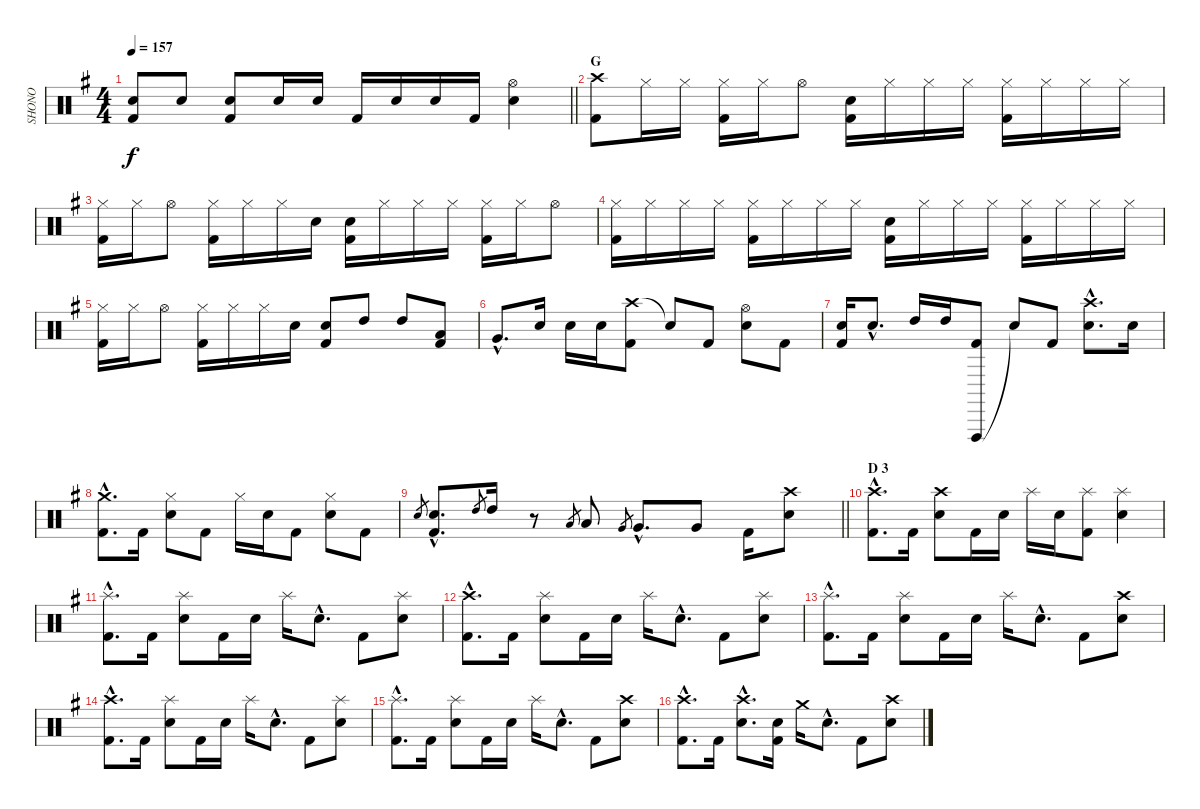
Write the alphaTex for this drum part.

\track ("SHONO" "SHONO") {instrument percussion}
\staff {score}
\articulation defaults
\ts (4 4)
\tempo 157
\clef neutral
\barLineRight lightlight
\ks g
("Snare (hit) 2" "Kick (hit) 2").8{dy f} "Snare (hit) 2".8 ("Snare (hit) 2" "Kick (hit) 2").8 "Snare (hit) 2".16 "Snare (hit) 2".16 "Kick (hit) 2".16 "Snare (hit) 2".16 "Snare (hit) 2".16 "Kick (hit) 2".16 ("Hi-Hat (open)" "Snare (hit) 2").4 |
\section ("" "G")
("Crash high (hit)" "Kick (hit) 2").8 "Hi-Hat (closed)".16 "Hi-Hat (closed)".16 ("Hi-Hat (closed)" "Kick (hit) 2").16 "Hi-Hat (closed)".16 "Hi-Hat (open)".8 ("Snare (hit) 2" "Kick (hit) 2").16 "Hi-Hat (closed)".16 "Hi-Hat (closed)".16 "Hi-Hat (closed)".16 ("Hi-Hat (closed)" "Kick (hit) 2").16 "Hi-Hat (closed)".16 "Hi-Hat (closed)".16 "Hi-Hat (closed)".16 |
("Hi-Hat (closed)" "Kick (hit) 2").16 "Hi-Hat (closed)".16 "Hi-Hat (open)".8 ("Hi-Hat (closed)" "Kick (hit) 2").16 "Hi-Hat (closed)".16 "Hi-Hat (closed)".16 "Snare (hit) 2".16 ("Kick (hit) 2" "Snare (hit) 2").16 "Hi-Hat (closed)".16 "Hi-Hat (closed)".16 "Hi-Hat (closed)".16 ("Hi-Hat (closed)" "Kick (hit) 2").16 "Hi-Hat (closed)".16 "Hi-Hat (open)".8 |
("Hi-Hat (closed)" "Kick (hit) 2").16 "Hi-Hat (closed)".16 "Hi-Hat (closed)".16 "Hi-Hat (closed)".16 ("Hi-Hat (closed)" "Kick (hit) 2").16 "Hi-Hat (closed)".16 "Hi-Hat (closed)".16 "Hi-Hat (closed)".16 ("Kick (hit) 2" "Snare (hit) 2").16 "Hi-Hat (closed)".16 "Hi-Hat (closed)".16 "Hi-Hat (closed)".16 ("Hi-Hat (closed)" "Kick (hit) 2").16 "Hi-Hat (closed)".16 "Hi-Hat (closed)".16 "Hi-Hat (closed)".16 |
("Hi-Hat (closed)" "Kick (hit) 2").16 "Hi-Hat (closed)".16 "Hi-Hat (open)".8 ("Hi-Hat (closed)" "Kick (hit) 2").16 "Hi-Hat (closed)".16 "Hi-Hat (closed)".16 "Snare (hit) 2".16 ("Kick (hit) 2" "Snare (hit) 2").8 "High Tom (hit)".8 "High Tom (hit)".8 ("Low Tom (hit)" "Kick (hit) 2").8 |
"Very Low Tom (hit)"{hac}.8{d} "Snare (hit) 2".16 "Snare (hit) 2".16 "Snare (hit) 2".16 ("Crash high (hit)" "Kick (hit) 2").8 "Snare (hit)"{t}.8 "Kick (hit) 2".8 ("Hi-Hat (open)" "Snare (hit) 2").8 "Kick (hit) 2".8 |
("Snare (hit) 2" "Kick (hit) 2").16 "Snare (hit) 2"{hac}.8{d} "High Tom (hit)".16 "High Tom (hit)".16 ("Vibraslap (hit)" "Kick (hit) 2").8 "Snare (hit)"{t}.8 "Kick (hit) 2".8 ("Crash high (hit)"{hac} "Snare (hit) 2"{hac}).8{d} "Snare (hit) 2".16 |
("Crash medium (hit)"{hac} "Kick (hit) 2"{hac}).8{d} "Kick (hit) 2".16 ("Hi-Hat (closed)" "Snare (hit) 2").8 "Kick (hit) 2".8 "Hi-Hat (closed)".16 "Snare (hit) 2".16 "Kick (hit) 2".8 ("Hi-Hat (closed)" "Snare (hit) 2").8 "Kick (hit) 2".8 |
\barLineRight lightlight "Snare (hit) 2".8{gr}
("Snare (hit) 2"{hac} "Kick (hit) 2"{hac}).8{d} "High Tom (hit)".8{gr} "High Tom (hit)".16 r.8 "Low Tom (hit)".8{gr} "Low Tom (hit)".8 "Very Low Tom (hit)".8{gr} "Very Low Tom (hit)"{hac}.8{d} "Very Low Tom (hit)".8 "Kick (hit) 2".16 ("Crash high (hit)" "Snare (hit) 2").8 |
\section ("" "D 3")
("Crash high (hit)"{hac} "Kick (hit) 2"{hac}).8{d} "Kick (hit) 2".16 ("Crash high (hit)" "Snare (hit) 2").8 "Kick (hit) 2".16 "Snare (hit) 2".16 "Splash (hit)".16 "Snare (hit) 2".16 ("Splash (hit)" "Kick (hit) 2").8 ("Splash (hit)" "Snare (hit) 2").4 |
("Splash (hit)"{hac} "Kick (hit) 2"{hac}).8{d} "Kick (hit) 2".16 ("Splash (hit)" "Snare (hit) 2").8 "Kick (hit) 2".16 "Snare (hit) 2".16 "Splash (hit)".16 "Snare (hit) 2"{hac}.8{d} "Kick (hit) 2".8 ("Splash (hit)" "Snare (hit) 2").8 |
("Crash high (hit)"{hac} "Kick (hit) 2"{hac}).8{d} "Kick (hit) 2".16 ("Splash (hit)" "Snare (hit) 2").8 "Kick (hit) 2".16 "Snare (hit) 2".16 "Splash (hit)".16 "Snare (hit) 2"{hac}.8{d} "Kick (hit) 2".8 ("Splash (hit)" "Snare (hit) 2").8 |
("Splash (hit)"{hac} "Kick (hit) 2"{hac}).8{d} "Kick (hit) 2".16 ("Splash (hit)" "Snare (hit) 2").8 "Kick (hit) 2".16 "Snare (hit) 2".16 "Splash (hit)".16 "Snare (hit) 2"{hac}.8{d} "Kick (hit) 2".8 ("Crash high (hit)" "Snare (hit) 2").8 |
("Crash high (hit)"{hac} "Kick (hit) 2"{hac}).8{d} "Kick (hit) 2".16 ("Splash (hit)" "Snare (hit) 2").8 "Kick (hit) 2".16 "Snare (hit) 2".16 "Splash (hit)".16 "Snare (hit) 2"{hac}.8{d} "Kick (hit) 2".8 ("Splash (hit)" "Snare (hit) 2").8 |
("Splash (hit)"{hac} "Kick (hit) 2"{hac}).8{d} "Kick (hit) 2".16 ("Splash (hit)" "Snare (hit) 2").8 "Kick (hit) 2".16 "Snare (hit) 2".16 "Splash (hit)".16 "Snare (hit) 2"{hac}.8{d} "Kick (hit) 2".8 ("Crash high (hit)" "Snare (hit) 2").8 |
("Crash high (hit)"{hac} "Kick (hit) 2"{hac}).8{d} "Kick (hit) 2".16 ("Crash high (hit)"{hac} "Snare (hit) 2"{hac}).8{d} ("Kick (hit) 2" "Snare (hit) 2").16 "Crash medium (hit)".16 "Snare (hit) 2"{hac}.8{d} "Kick (hit) 2".8 ("Crash high (hit)" "Snare (hit) 2").8
